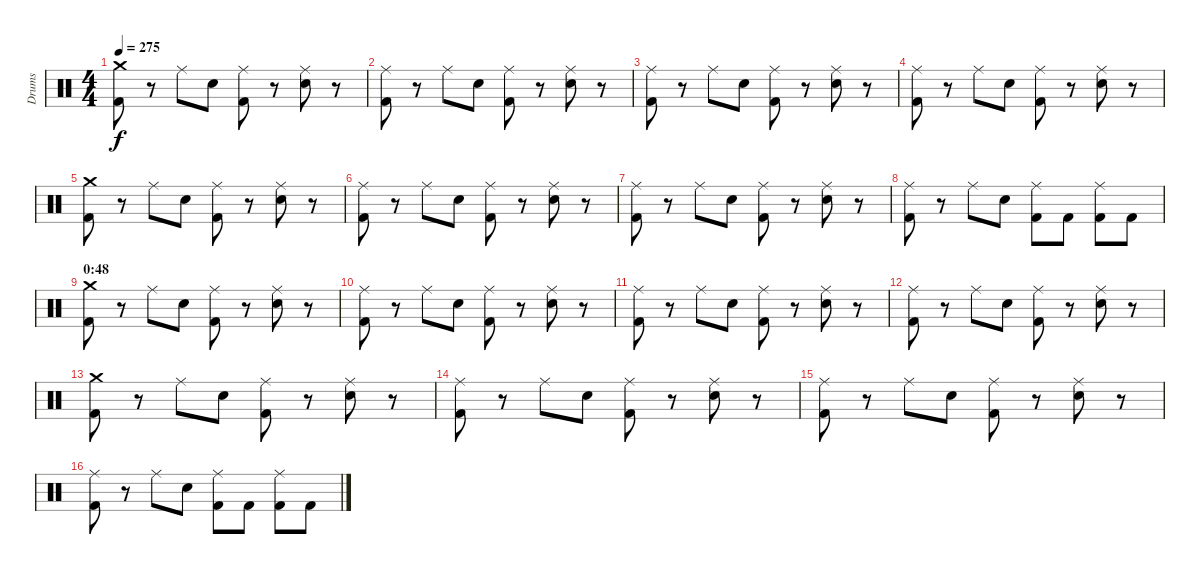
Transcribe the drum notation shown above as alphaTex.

\track ("Drums" "Drums") {instrument percussion}
\staff {score}
\articulation defaults
\ts (4 4)
\tempo 275
\clef neutral
\ks c
("Crash medium (hit)" "Kick (hit) 2").8{dy f} r.8 "Ride (middle)".8 "Electric Snare (hit)".8 ("Ride (middle)" "Kick (hit) 2").8 r.8 ("Ride (middle)" "Electric Snare (hit)").8 r.8 |
("Ride (middle)" "Kick (hit) 2").8 r.8 "Ride (middle)".8 "Electric Snare (hit)".8 ("Ride (middle)" "Kick (hit) 2").8 r.8 ("Ride (middle)" "Electric Snare (hit)").8 r.8 |
("Ride (middle)" "Kick (hit) 2").8 r.8 "Ride (middle)".8 "Electric Snare (hit)".8 ("Ride (middle)" "Kick (hit) 2").8 r.8 ("Ride (middle)" "Electric Snare (hit)").8 r.8 |
("Ride (middle)" "Kick (hit) 2").8 r.8 "Ride (middle)".8 "Electric Snare (hit)".8 ("Ride (middle)" "Kick (hit) 2").8 r.8 ("Ride (middle)" "Electric Snare (hit)").8 r.8 |
("Crash medium (hit)" "Kick (hit) 2").8 r.8 "Ride (middle)".8 "Electric Snare (hit)".8 ("Ride (middle)" "Kick (hit) 2").8 r.8 ("Ride (middle)" "Electric Snare (hit)").8 r.8 |
("Ride (middle)" "Kick (hit) 2").8 r.8 "Ride (middle)".8 "Electric Snare (hit)".8 ("Ride (middle)" "Kick (hit) 2").8 r.8 ("Ride (middle)" "Electric Snare (hit)").8 r.8 |
("Ride (middle)" "Kick (hit) 2").8 r.8 "Ride (middle)".8 "Electric Snare (hit)".8 ("Ride (middle)" "Kick (hit) 2").8 r.8 ("Ride (middle)" "Electric Snare (hit)").8 r.8 |
("Ride (middle)" "Kick (hit) 2").8 r.8 "Ride (middle)".8 "Electric Snare (hit)".8 ("Ride (middle)" "Kick (hit) 2").8 "Kick (hit) 2".8 ("Ride (middle)" "Kick (hit) 2").8 "Kick (hit) 2".8 |
\section ("" "0:48")
("Crash medium (hit)" "Kick (hit) 2").8 r.8 "Ride (middle)".8 "Electric Snare (hit)".8 ("Ride (middle)" "Kick (hit) 2").8 r.8 ("Ride (middle)" "Electric Snare (hit)").8 r.8 |
("Ride (middle)" "Kick (hit) 2").8 r.8 "Ride (middle)".8 "Electric Snare (hit)".8 ("Ride (middle)" "Kick (hit) 2").8 r.8 ("Ride (middle)" "Electric Snare (hit)").8 r.8 |
("Ride (middle)" "Kick (hit) 2").8 r.8 "Ride (middle)".8 "Electric Snare (hit)".8 ("Ride (middle)" "Kick (hit) 2").8 r.8 ("Ride (middle)" "Electric Snare (hit)").8 r.8 |
("Ride (middle)" "Kick (hit) 2").8 r.8 "Ride (middle)".8 "Electric Snare (hit)".8 ("Ride (middle)" "Kick (hit) 2").8 r.8 ("Ride (middle)" "Electric Snare (hit)").8 r.8 |
("Crash medium (hit)" "Kick (hit) 2").8 r.8 "Ride (middle)".8 "Electric Snare (hit)".8 ("Ride (middle)" "Kick (hit) 2").8 r.8 ("Ride (middle)" "Electric Snare (hit)").8 r.8 |
("Ride (middle)" "Kick (hit) 2").8 r.8 "Ride (middle)".8 "Electric Snare (hit)".8 ("Ride (middle)" "Kick (hit) 2").8 r.8 ("Ride (middle)" "Electric Snare (hit)").8 r.8 |
("Ride (middle)" "Kick (hit) 2").8 r.8 "Ride (middle)".8 "Electric Snare (hit)".8 ("Ride (middle)" "Kick (hit) 2").8 r.8 ("Ride (middle)" "Electric Snare (hit)").8 r.8 |
("Ride (middle)" "Kick (hit) 2").8 r.8 "Ride (middle)".8 "Electric Snare (hit)".8 ("Ride (middle)" "Kick (hit) 2").8 "Kick (hit) 2".8 ("Ride (middle)" "Kick (hit) 2").8 "Kick (hit) 2".8
